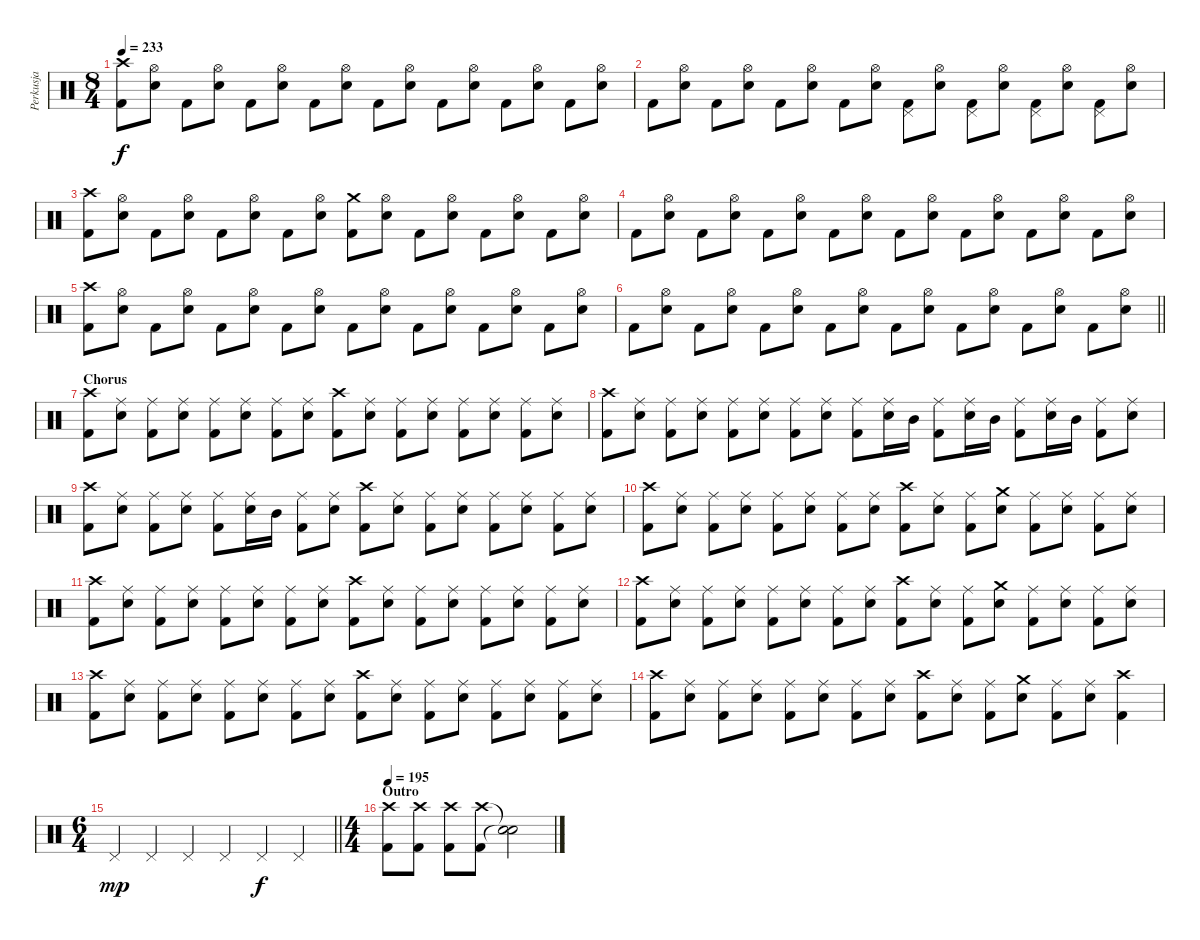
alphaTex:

\track ("Perkusja" "Perkusja") {instrument percussion}
\staff {score}
\articulation defaults
\ts (8 4)
\tempo 233
\clef neutral
\ks c
("Crash high (hit)" "Kick (hit) 2").8{dy f} ("Hi-Hat (open)" "Snare (hit) 2").8 "Kick (hit) 2".8 ("Hi-Hat (open)" "Snare (hit) 2").8 "Kick (hit) 2".8 ("Hi-Hat (open)" "Snare (hit) 2").8 "Kick (hit) 2".8 ("Hi-Hat (open)" "Snare (hit) 2").8 "Kick (hit) 2".8 ("Hi-Hat (open)" "Snare (hit) 2").8 "Kick (hit) 2".8 ("Hi-Hat (open)" "Snare (hit) 2").8 "Kick (hit) 2".8 ("Hi-Hat (open)" "Snare (hit) 2").8 "Kick (hit) 2".8 ("Hi-Hat (open)" "Snare (hit) 2").8 |
"Kick (hit) 2".8 ("Hi-Hat (open)" "Snare (hit) 2").8 "Kick (hit) 2".8 ("Hi-Hat (open)" "Snare (hit) 2").8 "Kick (hit) 2".8 ("Hi-Hat (open)" "Snare (hit) 2").8 "Kick (hit) 2".8 ("Hi-Hat (open)" "Snare (hit) 2").8 ("Pedal Hi-Hat (hit)" "Kick (hit) 2").8 ("Hi-Hat (open)" "Snare (hit) 2").8 ("Pedal Hi-Hat (hit)" "Kick (hit) 2").8 ("Hi-Hat (open)" "Snare (hit) 2").8 ("Pedal Hi-Hat (hit)" "Kick (hit) 2").8 ("Hi-Hat (open)" "Snare (hit) 2").8 ("Pedal Hi-Hat (hit)" "Kick (hit) 2").8 ("Hi-Hat (open)" "Snare (hit) 2").8 |
("Crash high (hit)" "Kick (hit) 2").8 ("Hi-Hat (open)" "Snare (hit) 2").8 "Kick (hit) 2".8 ("Hi-Hat (open)" "Snare (hit) 2").8 "Kick (hit) 2".8 ("Hi-Hat (open)" "Snare (hit) 2").8 "Kick (hit) 2".8 ("Hi-Hat (open)" "Snare (hit) 2").8 ("Crash medium (hit)" "Kick (hit) 2").8 ("Hi-Hat (open)" "Snare (hit) 2").8 "Kick (hit) 2".8 ("Hi-Hat (open)" "Snare (hit) 2").8 "Kick (hit) 2".8 ("Hi-Hat (open)" "Snare (hit) 2").8 "Kick (hit) 2".8 ("Hi-Hat (open)" "Snare (hit) 2").8 |
"Kick (hit) 2".8 ("Hi-Hat (open)" "Snare (hit) 2").8 "Kick (hit) 2".8 ("Hi-Hat (open)" "Snare (hit) 2").8 "Kick (hit) 2".8 ("Hi-Hat (open)" "Snare (hit) 2").8 "Kick (hit) 2".8 ("Hi-Hat (open)" "Snare (hit) 2").8 "Kick (hit) 2".8 ("Hi-Hat (open)" "Snare (hit) 2").8 "Kick (hit) 2".8 ("Hi-Hat (open)" "Snare (hit) 2").8 "Kick (hit) 2".8 ("Hi-Hat (open)" "Snare (hit) 2").8 "Kick (hit) 2".8 ("Hi-Hat (open)" "Snare (hit) 2").8 |
("Crash high (hit)" "Kick (hit) 2").8 ("Hi-Hat (open)" "Snare (hit) 2").8 "Kick (hit) 2".8 ("Hi-Hat (open)" "Snare (hit) 2").8 "Kick (hit) 2".8 ("Hi-Hat (open)" "Snare (hit) 2").8 "Kick (hit) 2".8 ("Hi-Hat (open)" "Snare (hit) 2").8 "Kick (hit) 2".8 ("Hi-Hat (open)" "Snare (hit) 2").8 "Kick (hit) 2".8 ("Hi-Hat (open)" "Snare (hit) 2").8 "Kick (hit) 2".8 ("Hi-Hat (open)" "Snare (hit) 2").8 "Kick (hit) 2".8 ("Hi-Hat (open)" "Snare (hit) 2").8 |
\barLineRight lightlight "Kick (hit) 2".8
("Hi-Hat (open)" "Snare (hit) 2").8 "Kick (hit) 2".8 ("Hi-Hat (open)" "Snare (hit) 2").8 "Kick (hit) 2".8 ("Hi-Hat (open)" "Snare (hit) 2").8 "Kick (hit) 2".8 ("Hi-Hat (open)" "Snare (hit) 2").8 "Kick (hit) 2".8 ("Hi-Hat (open)" "Snare (hit) 2").8 "Kick (hit) 2".8 ("Hi-Hat (open)" "Snare (hit) 2").8 "Kick (hit) 2".8 ("Hi-Hat (open)" "Snare (hit) 2").8 "Kick (hit) 2".8 ("Hi-Hat (open)" "Snare (hit) 2").8 |
\section ("" "Chorus")
("Crash high (hit)" "Kick (hit) 2").8 ("Ride (middle)" "Snare (hit) 2").8 ("Ride (middle)" "Kick (hit) 2").8 ("Ride (middle)" "Snare (hit) 2").8 ("Ride (middle)" "Kick (hit) 2").8 ("Ride (middle)" "Snare (hit) 2").8 ("Ride (middle)" "Kick (hit) 2").8 ("Ride (middle)" "Snare (hit) 2").8 ("Crash high (hit)" "Kick (hit) 2").8 ("Ride (middle)" "Snare (hit) 2").8 ("Ride (middle)" "Kick (hit) 2").8 ("Ride (middle)" "Snare (hit) 2").8 ("Ride (middle)" "Kick (hit) 2").8 ("Ride (middle)" "Snare (hit) 2").8 ("Ride (middle)" "Kick (hit) 2").8 ("Ride (middle)" "Snare (hit) 2").8 |
("Crash high (hit)" "Kick (hit) 2").8 ("Ride (middle)" "Snare (hit) 2").8 ("Ride (middle)" "Kick (hit) 2").8 ("Ride (middle)" "Snare (hit) 2").8 ("Ride (middle)" "Kick (hit) 2").8 ("Ride (middle)" "Snare (hit) 2").8 ("Ride (middle)" "Kick (hit) 2").8 ("Ride (middle)" "Snare (hit) 2").8 ("Ride (middle)" "Kick (hit) 2").8 ("Ride (middle)" "Snare (hit) 2").16 "Mid Tom (hit)".16 ("Ride (middle)" "Kick (hit) 2").8 ("Ride (middle)" "Snare (hit) 2").16 "Mid Tom (hit)".16 ("Ride (middle)" "Kick (hit) 2").8 ("Ride (middle)" "Snare (hit) 2").16 "Mid Tom (hit)".16 ("Ride (middle)" "Kick (hit) 2").8 ("Ride (middle)" "Snare (hit) 2").8 |
("Crash high (hit)" "Kick (hit) 2").8 ("Ride (middle)" "Snare (hit) 2").8 ("Ride (middle)" "Kick (hit) 2").8 ("Ride (middle)" "Snare (hit) 2").8 ("Ride (middle)" "Kick (hit) 2").8 ("Ride (middle)" "Snare (hit) 2").16 "Mid Tom (hit)".16 ("Ride (middle)" "Kick (hit) 2").8 ("Ride (middle)" "Snare (hit) 2").8 ("Crash high (hit)" "Kick (hit) 2").8 ("Ride (middle)" "Snare (hit) 2").8 ("Ride (middle)" "Kick (hit) 2").8 ("Ride (middle)" "Snare (hit) 2").8 ("Ride (middle)" "Kick (hit) 2").8 ("Ride (middle)" "Snare (hit) 2").8 ("Ride (middle)" "Kick (hit) 2").8 ("Ride (middle)" "Snare (hit) 2").8 |
("Crash high (hit)" "Kick (hit) 2").8 ("Ride (middle)" "Snare (hit) 2").8 ("Ride (middle)" "Kick (hit) 2").8 ("Ride (middle)" "Snare (hit) 2").8 ("Ride (middle)" "Kick (hit) 2").8 ("Ride (middle)" "Snare (hit) 2").8 ("Ride (middle)" "Kick (hit) 2").8 ("Ride (middle)" "Snare (hit) 2").8 ("Crash high (hit)" "Kick (hit) 2").8 ("Ride (middle)" "Snare (hit) 2").8 ("Ride (middle)" "Kick (hit) 2").8 ("Crash medium (hit)" "Snare (hit) 2").8 ("Ride (middle)" "Kick (hit) 2").8 ("Ride (middle)" "Snare (hit) 2").8 ("Ride (middle)" "Kick (hit) 2").8 ("Ride (middle)" "Snare (hit) 2").8 |
("Crash high (hit)" "Kick (hit) 2").8 ("Ride (middle)" "Snare (hit) 2").8 ("Ride (middle)" "Kick (hit) 2").8 ("Ride (middle)" "Snare (hit) 2").8 ("Ride (middle)" "Kick (hit) 2").8 ("Ride (middle)" "Snare (hit) 2").8 ("Ride (middle)" "Kick (hit) 2").8 ("Ride (middle)" "Snare (hit) 2").8 ("Crash high (hit)" "Kick (hit) 2").8 ("Ride (middle)" "Snare (hit) 2").8 ("Ride (middle)" "Kick (hit) 2").8 ("Ride (middle)" "Snare (hit) 2").8 ("Ride (middle)" "Kick (hit) 2").8 ("Ride (middle)" "Snare (hit) 2").8 ("Ride (middle)" "Kick (hit) 2").8 ("Ride (middle)" "Snare (hit) 2").8 |
("Crash high (hit)" "Kick (hit) 2").8 ("Ride (middle)" "Snare (hit) 2").8 ("Ride (middle)" "Kick (hit) 2").8 ("Ride (middle)" "Snare (hit) 2").8 ("Ride (middle)" "Kick (hit) 2").8 ("Ride (middle)" "Snare (hit) 2").8 ("Ride (middle)" "Kick (hit) 2").8 ("Ride (middle)" "Snare (hit) 2").8 ("Crash high (hit)" "Kick (hit) 2").8 ("Ride (middle)" "Snare (hit) 2").8 ("Ride (middle)" "Kick (hit) 2").8 ("Crash medium (hit)" "Snare (hit) 2").8 ("Ride (middle)" "Kick (hit) 2").8 ("Ride (middle)" "Snare (hit) 2").8 ("Ride (middle)" "Kick (hit) 2").8 ("Ride (middle)" "Snare (hit) 2").8 |
("Crash high (hit)" "Kick (hit) 2").8 ("Ride (middle)" "Snare (hit) 2").8 ("Ride (middle)" "Kick (hit) 2").8 ("Ride (middle)" "Snare (hit) 2").8 ("Ride (middle)" "Kick (hit) 2").8 ("Ride (middle)" "Snare (hit) 2").8 ("Ride (middle)" "Kick (hit) 2").8 ("Ride (middle)" "Snare (hit) 2").8 ("Crash high (hit)" "Kick (hit) 2").8 ("Ride (middle)" "Snare (hit) 2").8 ("Ride (middle)" "Kick (hit) 2").8 ("Ride (middle)" "Snare (hit) 2").8 ("Ride (middle)" "Kick (hit) 2").8 ("Ride (middle)" "Snare (hit) 2").8 ("Ride (middle)" "Kick (hit) 2").8 ("Ride (middle)" "Snare (hit) 2").8 |
("Crash high (hit)" "Kick (hit) 2").8 ("Ride (middle)" "Snare (hit) 2").8 ("Ride (middle)" "Kick (hit) 2").8 ("Ride (middle)" "Snare (hit) 2").8 ("Ride (middle)" "Kick (hit) 2").8 ("Ride (middle)" "Snare (hit) 2").8 ("Ride (middle)" "Kick (hit) 2").8 ("Ride (middle)" "Snare (hit) 2").8 ("Crash high (hit)" "Kick (hit) 2").8 ("Ride (middle)" "Snare (hit) 2").8 ("Ride (middle)" "Kick (hit) 2").8 ("Crash medium (hit)" "Snare (hit) 2").8 ("Ride (middle)" "Kick (hit) 2").8 ("Ride (middle)" "Snare (hit) 2").8 ("Crash high (hit)" "Kick (hit) 2").4 |
\ts (6 4)
\barLineRight lightlight "Pedal Hi-Hat (hit)".4{dy mp} "Pedal Hi-Hat (hit)".4 "Pedal Hi-Hat (hit)".4 "Pedal Hi-Hat (hit)".4 "Pedal Hi-Hat (hit)".4{dy f} "Pedal Hi-Hat (hit)".4
|
\ts (4 4)
\section ("" "Outro")
\tempo 195
("Crash high (hit)" "Kick (hit) 2").8 ("Crash high (hit)" "Kick (hit) 2").8 ("Crash high (hit)" "Kick (hit) 2").8 ("Crash high (hit)" "Kick (hit) 2").8 ("Snare (hit)"{t} "Snare (hit)"{t}).2
